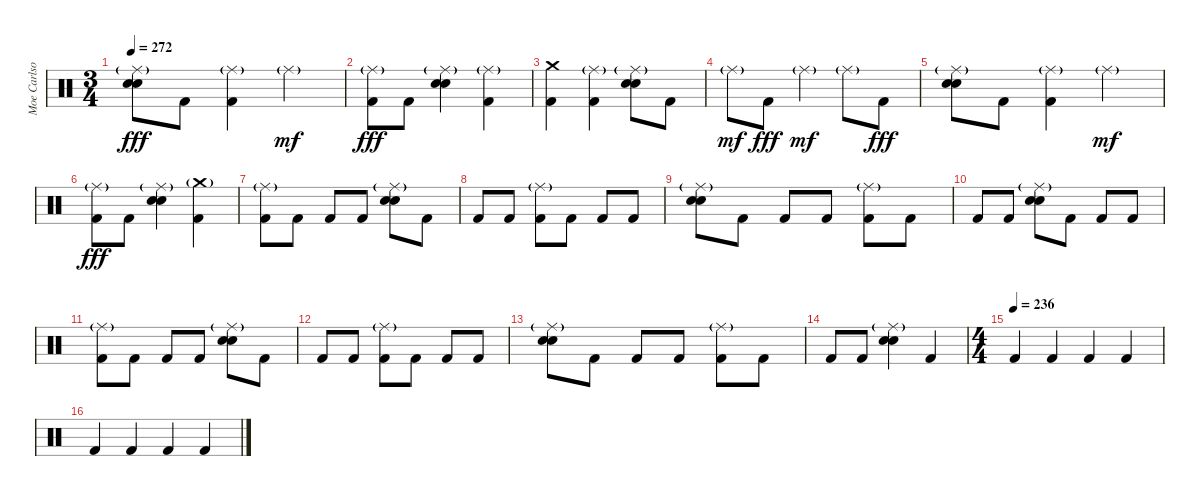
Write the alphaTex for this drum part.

\track ("Moe Carlson" "Moe Carlso") {instrument percussion}
\staff {score}
\articulation defaults
\ts (3 4)
\tempo 272
\clef neutral
\ks c
("Ride (middle)"{g} "Snare (hit) 2" "Electric Snare (hit)").8{dy fff} "Kick (hit) 2".8 ("Ride (middle)"{g} "Kick (hit) 2").4 "Ride (middle)"{g}.4{dy mf} |
("Ride (middle)"{g} "Kick (hit) 2").8{dy fff} "Kick (hit) 2".8 ("Ride (middle)"{g} "Snare (hit) 2" "Electric Snare (hit)").4 ("Ride (middle)"{g} "Kick (hit) 2").4 |
("Crash medium (hit)" "Kick (hit) 2").4 ("Ride (middle)"{g} "Kick (hit) 2").4 ("Ride (middle)"{g} "Snare (hit) 2" "Electric Snare (hit)").8 "Kick (hit) 2".8 |
"Ride (middle)"{g}.8{dy mf} "Kick (hit) 2".8{dy fff} "Ride (middle)"{g}.4{dy mf} "Ride (middle)"{g}.8 "Kick (hit) 2".8{dy fff} |
("Ride (middle)"{g} "Snare (hit) 2" "Electric Snare (hit)").8 "Kick (hit) 2".8 ("Ride (middle)"{g} "Kick (hit) 2").4 "Ride (middle)"{g}.4{dy mf} |
("Ride (middle)"{g} "Kick (hit) 2").8{dy fff} "Kick (hit) 2".8 ("Ride (middle)"{g} "Snare (hit) 2" "Electric Snare (hit)").4 ("Crash medium (hit)"{g} "Kick (hit) 2").4 |
("Ride (middle)"{g} "Kick (hit) 2").8 "Kick (hit) 2".8 "Kick (hit) 2".8 "Kick (hit) 2".8 ("Ride (middle)"{g} "Snare (hit) 2" "Electric Snare (hit)").8 "Kick (hit) 2".8 |
"Kick (hit) 2".8 "Kick (hit) 2".8 ("Ride (middle)"{g} "Kick (hit) 2").8 "Kick (hit) 2".8 "Kick (hit) 2".8 "Kick (hit) 2".8 |
("Ride (middle)"{g} "Snare (hit) 2" "Electric Snare (hit)").8 "Kick (hit) 2".8 "Kick (hit) 2".8 "Kick (hit) 2".8 ("Ride (middle)"{g} "Kick (hit) 2").8 "Kick (hit) 2".8 |
"Kick (hit) 2".8 "Kick (hit) 2".8 ("Ride (middle)"{g} "Snare (hit) 2" "Electric Snare (hit)").8 "Kick (hit) 2".8 "Kick (hit) 2".8 "Kick (hit) 2".8 |
("Ride (middle)"{g} "Kick (hit) 2").8 "Kick (hit) 2".8 "Kick (hit) 2".8 "Kick (hit) 2".8 ("Ride (middle)"{g} "Snare (hit) 2" "Electric Snare (hit)").8 "Kick (hit) 2".8 |
"Kick (hit) 2".8 "Kick (hit) 2".8 ("Ride (middle)"{g} "Kick (hit) 2").8 "Kick (hit) 2".8 "Kick (hit) 2".8 "Kick (hit) 2".8 |
("Ride (middle)"{g} "Snare (hit) 2" "Electric Snare (hit)").8 "Kick (hit) 2".8 "Kick (hit) 2".8 "Kick (hit) 2".8 ("Ride (middle)"{g} "Kick (hit) 2").8 "Kick (hit) 2".8 |
"Kick (hit) 2".8 "Kick (hit) 2".8 ("Ride (middle)"{g} "Snare (hit) 2" "Electric Snare (hit)").4 "Kick (hit) 2".4 |
\ts (4 4)
\tempo (236)
"Kick (hit) 2".4 "Kick (hit) 2".4 "Kick (hit) 2".4 "Kick (hit) 2".4 |
"Kick (hit) 2".4 "Kick (hit) 2".4 "Kick (hit) 2".4 "Kick (hit) 2".4
